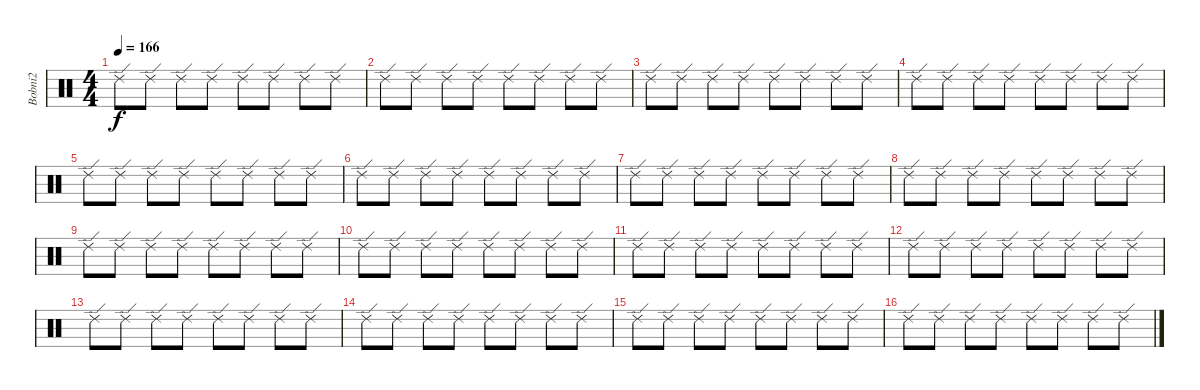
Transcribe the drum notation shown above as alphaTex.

\track ("Bobni2" "Bobni2") {instrument percussion}
\staff {score}
\articulation defaults
\ts (4 4)
\tempo 166
\clef neutral
\ks c "Ride (edge) 2".8{dy f} "Ride (edge) 2".8 "Ride (edge) 2".8 "Ride (edge) 2".8 "Ride (edge) 2".8 "Ride (edge) 2".8 "Ride (edge) 2".8 "Ride (edge) 2".8
|
"Ride (edge) 2".8 "Ride (edge) 2".8 "Ride (edge) 2".8 "Ride (edge) 2".8 "Ride (edge) 2".8 "Ride (edge) 2".8 "Ride (edge) 2".8 "Ride (edge) 2".8 |
"Ride (edge) 2".8 "Ride (edge) 2".8 "Ride (edge) 2".8 "Ride (edge) 2".8 "Ride (edge) 2".8 "Ride (edge) 2".8 "Ride (edge) 2".8 "Ride (edge) 2".8 |
"Ride (edge) 2".8 "Ride (edge) 2".8 "Ride (edge) 2".8 "Ride (edge) 2".8 "Ride (edge) 2".8 "Ride (edge) 2".8 "Ride (edge) 2".8 "Ride (edge) 2".8 |
"Ride (edge) 2".8 "Ride (edge) 2".8 "Ride (edge) 2".8 "Ride (edge) 2".8 "Ride (edge) 2".8 "Ride (edge) 2".8 "Ride (edge) 2".8 "Ride (edge) 2".8 |
"Ride (edge) 2".8 "Ride (edge) 2".8 "Ride (edge) 2".8 "Ride (edge) 2".8 "Ride (edge) 2".8 "Ride (edge) 2".8 "Ride (edge) 2".8 "Ride (edge) 2".8 |
"Ride (edge) 2".8 "Ride (edge) 2".8 "Ride (edge) 2".8 "Ride (edge) 2".8 "Ride (edge) 2".8 "Ride (edge) 2".8 "Ride (edge) 2".8 "Ride (edge) 2".8 |
"Ride (edge) 2".8 "Ride (edge) 2".8 "Ride (edge) 2".8 "Ride (edge) 2".8 "Ride (edge) 2".8 "Ride (edge) 2".8 "Ride (edge) 2".8 "Ride (edge) 2".8 |
"Ride (edge) 2".8 "Ride (edge) 2".8 "Ride (edge) 2".8 "Ride (edge) 2".8 "Ride (edge) 2".8 "Ride (edge) 2".8 "Ride (edge) 2".8 "Ride (edge) 2".8 |
"Ride (edge) 2".8 "Ride (edge) 2".8 "Ride (edge) 2".8 "Ride (edge) 2".8 "Ride (edge) 2".8 "Ride (edge) 2".8 "Ride (edge) 2".8 "Ride (edge) 2".8 |
"Ride (edge) 2".8 "Ride (edge) 2".8 "Ride (edge) 2".8 "Ride (edge) 2".8 "Ride (edge) 2".8 "Ride (edge) 2".8 "Ride (edge) 2".8 "Ride (edge) 2".8 |
"Ride (edge) 2".8 "Ride (edge) 2".8 "Ride (edge) 2".8 "Ride (edge) 2".8 "Ride (edge) 2".8 "Ride (edge) 2".8 "Ride (edge) 2".8 "Ride (edge) 2".8 |
"Ride (edge) 2".8 "Ride (edge) 2".8 "Ride (edge) 2".8 "Ride (edge) 2".8 "Ride (edge) 2".8 "Ride (edge) 2".8 "Ride (edge) 2".8 "Ride (edge) 2".8 |
"Ride (edge) 2".8 "Ride (edge) 2".8 "Ride (edge) 2".8 "Ride (edge) 2".8 "Ride (edge) 2".8 "Ride (edge) 2".8 "Ride (edge) 2".8 "Ride (edge) 2".8 |
"Ride (edge) 2".8 "Ride (edge) 2".8 "Ride (edge) 2".8 "Ride (edge) 2".8 "Ride (edge) 2".8 "Ride (edge) 2".8 "Ride (edge) 2".8 "Ride (edge) 2".8 |
"Ride (edge) 2".8 "Ride (edge) 2".8 "Ride (edge) 2".8 "Ride (edge) 2".8 "Ride (edge) 2".8 "Ride (edge) 2".8 "Ride (edge) 2".8 "Ride (edge) 2".8
